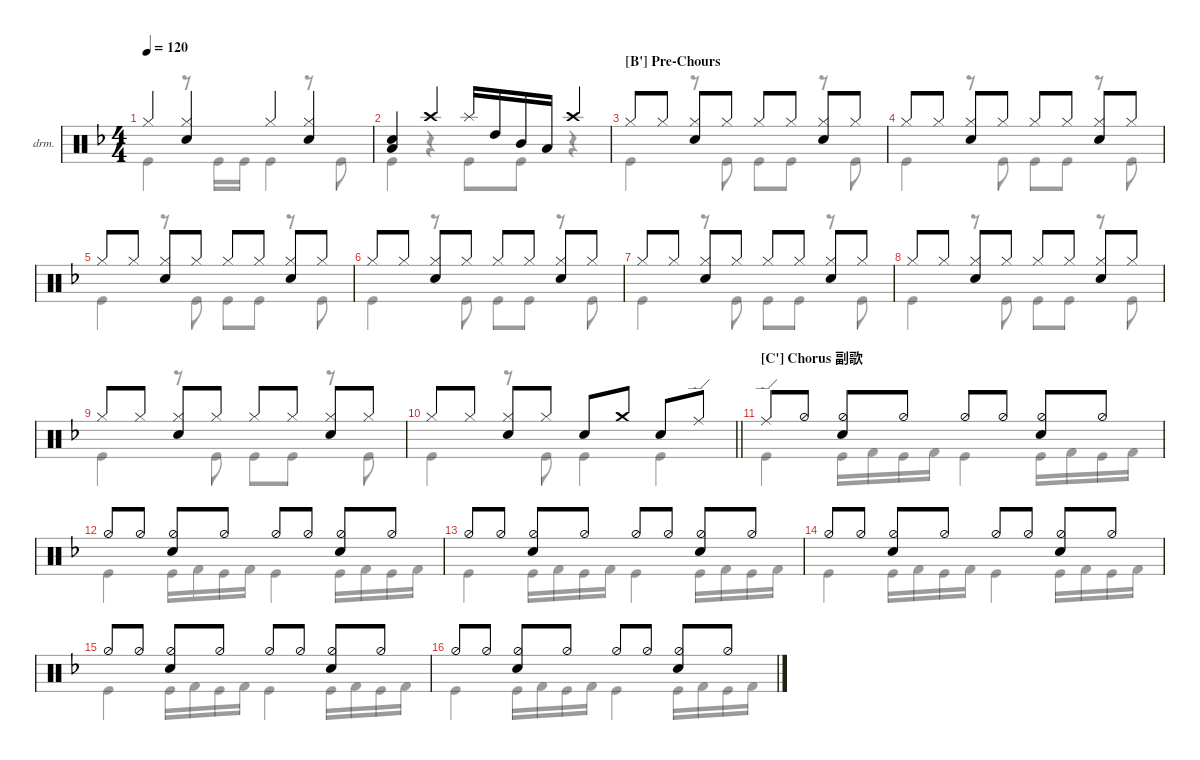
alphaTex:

\defaultSystemsLayout 4
\hideDynamics
\bracketExtendMode nobrackets
\firstSystemTrackNameOrientation horizontal
\track ("Drumkit" "drm.") {mute instrument percussion}
\staff {score}
\articulation defaults
\voice
\ts (4 4)
\tempo 120
\clef neutral
\ks dminor "Hi-Hat (closed)"{acc forcenatural}.4{dy mf}
("Snare (hit) 2"{acc forcenatural} "Hi-Hat (closed)"{acc forcenatural}).4 "Hi-Hat (closed)"{acc forcenatural}.4 ("Hi-Hat (closed)"{acc forcenatural} "Snare (hit) 2"{acc forcenatural}).4 |
("Snare (hit) 2"{acc forcenatural} "Low Floor Tom (hit)"{acc forcenatural}).4 "Crash high (hit)"{acc forcenatural}.4 "Splash (hit)"{acc forcenatural}.16 "High Tom (hit)"{acc forcenatural}.16 "Mid Tom (hit)"{acc forcenatural}.16 "Low Tom (hit)"{acc forcenatural}.16 "Crash high (hit)"{acc forcenatural}.4 |
\section ("B'" "Pre-Chours")
"Hi-Hat (closed)"{acc forcenatural}.8 "Hi-Hat (closed)"{acc forcenatural}.8 ("Hi-Hat (closed)"{acc forcenatural} "Snare (hit) 2"{acc forcenatural}).8 "Hi-Hat (closed)"{acc forcenatural}.8 "Hi-Hat (closed)"{acc forcenatural}.8 "Hi-Hat (closed)"{acc forcenatural}.8 ("Hi-Hat (closed)"{acc forcenatural} "Snare (hit) 2"{acc forcenatural}).8 "Hi-Hat (closed)"{acc forcenatural}.8 |
"Hi-Hat (closed)"{acc forcenatural}.8 "Hi-Hat (closed)"{acc forcenatural}.8 ("Hi-Hat (closed)"{acc forcenatural} "Snare (hit) 2"{acc forcenatural}).8 "Hi-Hat (closed)"{acc forcenatural}.8 "Hi-Hat (closed)"{acc forcenatural}.8 "Hi-Hat (closed)"{acc forcenatural}.8 ("Hi-Hat (closed)"{acc forcenatural} "Snare (hit) 2"{acc forcenatural}).8 "Hi-Hat (closed)"{acc forcenatural}.8 |
"Hi-Hat (closed)"{acc forcenatural}.8 "Hi-Hat (closed)"{acc forcenatural}.8 ("Hi-Hat (closed)"{acc forcenatural} "Snare (hit) 2"{acc forcenatural}).8 "Hi-Hat (closed)"{acc forcenatural}.8 "Hi-Hat (closed)"{acc forcenatural}.8 "Hi-Hat (closed)"{acc forcenatural}.8 ("Hi-Hat (closed)"{acc forcenatural} "Snare (hit) 2"{acc forcenatural}).8 "Hi-Hat (closed)"{acc forcenatural}.8 |
"Hi-Hat (closed)"{acc forcenatural}.8 "Hi-Hat (closed)"{acc forcenatural}.8 ("Hi-Hat (closed)"{acc forcenatural} "Snare (hit) 2"{acc forcenatural}).8 "Hi-Hat (closed)"{acc forcenatural}.8 "Hi-Hat (closed)"{acc forcenatural}.8 "Hi-Hat (closed)"{acc forcenatural}.8 ("Hi-Hat (closed)"{acc forcenatural} "Snare (hit) 2"{acc forcenatural}).8 "Hi-Hat (closed)"{acc forcenatural}.8 |
"Hi-Hat (closed)"{acc forcenatural}.8 "Hi-Hat (closed)"{acc forcenatural}.8 ("Hi-Hat (closed)"{acc forcenatural} "Snare (hit) 2"{acc forcenatural}).8 "Hi-Hat (closed)"{acc forcenatural}.8 "Hi-Hat (closed)"{acc forcenatural}.8 "Hi-Hat (closed)"{acc forcenatural}.8 ("Hi-Hat (closed)"{acc forcenatural} "Snare (hit) 2"{acc forcenatural}).8 "Hi-Hat (closed)"{acc forcenatural}.8 |
"Hi-Hat (closed)"{acc forcenatural}.8 "Hi-Hat (closed)"{acc forcenatural}.8 ("Hi-Hat (closed)"{acc forcenatural} "Snare (hit) 2"{acc forcenatural}).8 "Hi-Hat (closed)"{acc forcenatural}.8 "Hi-Hat (closed)"{acc forcenatural}.8 "Hi-Hat (closed)"{acc forcenatural}.8 ("Hi-Hat (closed)"{acc forcenatural} "Snare (hit) 2"{acc forcenatural}).8 "Hi-Hat (closed)"{acc forcenatural}.8 |
"Hi-Hat (closed)"{acc forcenatural}.8 "Hi-Hat (closed)"{acc forcenatural}.8 ("Hi-Hat (closed)"{acc forcenatural} "Snare (hit) 2"{acc forcenatural}).8 "Hi-Hat (closed)"{acc forcenatural}.8 "Hi-Hat (closed)"{acc forcenatural}.8 "Hi-Hat (closed)"{acc forcenatural}.8 ("Hi-Hat (closed)"{acc forcenatural} "Snare (hit) 2"{acc forcenatural}).8 "Hi-Hat (closed)"{acc forcenatural}.8 |
\barLineRight lightlight "Hi-Hat (closed)"{acc forcenatural}.8 "Hi-Hat (closed)"{acc forcenatural}.8
("Hi-Hat (closed)"{acc forcenatural} "Snare (hit) 2"{acc forcenatural}).8 "Hi-Hat (closed)"{acc forcenatural}.8 "Snare (hit) 2"{acc forcenatural}.8 "Crash medium (hit)"{acc forcenatural}.8 "Snare (hit) 2"{acc forcenatural}.8 "Ride (edge)"{acc forcenatural}.8 |
\section ("C'" "Chorus 副歌")
"Ride (edge)"{acc forcenatural}.8 "Hi-Hat (half)"{acc forcenatural}.8 ("Hi-Hat (half)"{acc forcenatural} "Snare (hit) 2"{acc forcenatural}).8 "Hi-Hat (half)"{acc forcenatural}.8 "Hi-Hat (half)"{acc forcenatural}.8 "Hi-Hat (half)"{acc forcenatural}.8 ("Hi-Hat (half)"{acc forcenatural} "Snare (hit) 2"{acc forcenatural}).8 "Hi-Hat (half)"{acc forcenatural}.8 |
"Hi-Hat (half)"{acc forcenatural}.8 "Hi-Hat (half)"{acc forcenatural}.8 ("Hi-Hat (half)"{acc forcenatural} "Snare (hit) 2"{acc forcenatural}).8 "Hi-Hat (half)"{acc forcenatural}.8 "Hi-Hat (half)"{acc forcenatural}.8 "Hi-Hat (half)"{acc forcenatural}.8 ("Hi-Hat (half)"{acc forcenatural} "Snare (hit) 2"{acc forcenatural}).8 "Hi-Hat (half)"{acc forcenatural}.8 |
"Hi-Hat (half)"{acc forcenatural}.8 "Hi-Hat (half)"{acc forcenatural}.8 ("Hi-Hat (half)"{acc forcenatural} "Snare (hit) 2"{acc forcenatural}).8 "Hi-Hat (half)"{acc forcenatural}.8 "Hi-Hat (half)"{acc forcenatural}.8 "Hi-Hat (half)"{acc forcenatural}.8 ("Hi-Hat (half)"{acc forcenatural} "Snare (hit) 2"{acc forcenatural}).8 "Hi-Hat (half)"{acc forcenatural}.8 |
"Hi-Hat (half)"{acc forcenatural}.8 "Hi-Hat (half)"{acc forcenatural}.8 ("Hi-Hat (half)"{acc forcenatural} "Snare (hit) 2"{acc forcenatural}).8 "Hi-Hat (half)"{acc forcenatural}.8 "Hi-Hat (half)"{acc forcenatural}.8 "Hi-Hat (half)"{acc forcenatural}.8 ("Hi-Hat (half)"{acc forcenatural} "Snare (hit) 2"{acc forcenatural}).8 "Hi-Hat (half)"{acc forcenatural}.8 |
"Hi-Hat (half)"{acc forcenatural}.8 "Hi-Hat (half)"{acc forcenatural}.8 ("Hi-Hat (half)"{acc forcenatural} "Snare (hit) 2"{acc forcenatural}).8 "Hi-Hat (half)"{acc forcenatural}.8 "Hi-Hat (half)"{acc forcenatural}.8 "Hi-Hat (half)"{acc forcenatural}.8 ("Hi-Hat (half)"{acc forcenatural} "Snare (hit) 2"{acc forcenatural}).8 "Hi-Hat (half)"{acc forcenatural}.8 |
"Hi-Hat (half)"{acc forcenatural}.8 "Hi-Hat (half)"{acc forcenatural}.8 ("Hi-Hat (half)"{acc forcenatural} "Snare (hit) 2"{acc forcenatural}).8 "Hi-Hat (half)"{acc forcenatural}.8 "Hi-Hat (half)"{acc forcenatural}.8 "Hi-Hat (half)"{acc forcenatural}.8 ("Hi-Hat (half)"{acc forcenatural} "Snare (hit) 2"{acc forcenatural}).8 "Hi-Hat (half)"{acc forcenatural}.8
\voice
\clef neutral
\ottava regular
\simile none
\ks dminor "Kick (hit)"{acc forcenatural}.4{dy mf}
r.8 "Kick (hit)"{acc forcenatural}.16 "Kick (hit)"{acc forcenatural}.16 "Kick (hit)"{acc forcenatural}.4 r.8 "Kick (hit)"{acc forcenatural}.8 |
"Kick (hit)"{acc forcenatural}.4 r.4 "Kick (hit)"{acc forcenatural}.8 "Kick (hit)"{acc forcenatural}.8 r.4 |
"Kick (hit)"{acc forcenatural}.4 r.8 "Kick (hit)"{acc forcenatural}.8 "Kick (hit)"{acc forcenatural}.8 "Kick (hit)"{acc forcenatural}.8 r.8 "Kick (hit)"{acc forcenatural}.8 |
"Kick (hit)"{acc forcenatural}.4 r.8 "Kick (hit)"{acc forcenatural}.8 "Kick (hit)"{acc forcenatural}.8 "Kick (hit)"{acc forcenatural}.8 r.8 "Kick (hit)"{acc forcenatural}.8 |
"Kick (hit)"{acc forcenatural}.4 r.8 "Kick (hit)"{acc forcenatural}.8 "Kick (hit)"{acc forcenatural}.8 "Kick (hit)"{acc forcenatural}.8 r.8 "Kick (hit)"{acc forcenatural}.8 |
"Kick (hit)"{acc forcenatural}.4 r.8 "Kick (hit)"{acc forcenatural}.8 "Kick (hit)"{acc forcenatural}.8 "Kick (hit)"{acc forcenatural}.8 r.8 "Kick (hit)"{acc forcenatural}.8 |
"Kick (hit)"{acc forcenatural}.4 r.8 "Kick (hit)"{acc forcenatural}.8 "Kick (hit)"{acc forcenatural}.8 "Kick (hit)"{acc forcenatural}.8 r.8 "Kick (hit)"{acc forcenatural}.8 |
"Kick (hit)"{acc forcenatural}.4 r.8 "Kick (hit)"{acc forcenatural}.8 "Kick (hit)"{acc forcenatural}.8 "Kick (hit)"{acc forcenatural}.8 r.8 "Kick (hit)"{acc forcenatural}.8 |
"Kick (hit)"{acc forcenatural}.4 r.8 "Kick (hit)"{acc forcenatural}.8 "Kick (hit)"{acc forcenatural}.8 "Kick (hit)"{acc forcenatural}.8 r.8 "Kick (hit)"{acc forcenatural}.8 |
\barLineRight lightlight "Kick (hit)"{acc forcenatural}.4
r.8 "Kick (hit)"{acc forcenatural}.8 "Kick (hit)"{acc forcenatural}.4 "Kick (hit)"{acc forcenatural}.4 |
"Kick (hit)"{acc forcenatural}.4 "Kick (hit)"{acc forcenatural}.16 "Kick (hit) 2"{acc forcenatural}.16 "Kick (hit)"{acc forcenatural}.16 "Kick (hit) 2"{acc forcenatural}.16 "Kick (hit)"{acc forcenatural}.4 "Kick (hit)"{acc forcenatural}.16 "Kick (hit) 2"{acc forcenatural}.16 "Kick (hit)"{acc forcenatural}.16 "Kick (hit) 2"{acc forcenatural}.16 |
"Kick (hit)"{acc forcenatural}.4 "Kick (hit)"{acc forcenatural}.16 "Kick (hit) 2"{acc forcenatural}.16 "Kick (hit)"{acc forcenatural}.16 "Kick (hit) 2"{acc forcenatural}.16 "Kick (hit)"{acc forcenatural}.4 "Kick (hit)"{acc forcenatural}.16 "Kick (hit) 2"{acc forcenatural}.16 "Kick (hit)"{acc forcenatural}.16 "Kick (hit) 2"{acc forcenatural}.16 |
"Kick (hit)"{acc forcenatural}.4 "Kick (hit)"{acc forcenatural}.16 "Kick (hit) 2"{acc forcenatural}.16 "Kick (hit)"{acc forcenatural}.16 "Kick (hit) 2"{acc forcenatural}.16 "Kick (hit)"{acc forcenatural}.4 "Kick (hit)"{acc forcenatural}.16 "Kick (hit) 2"{acc forcenatural}.16 "Kick (hit)"{acc forcenatural}.16 "Kick (hit) 2"{acc forcenatural}.16 |
"Kick (hit)"{acc forcenatural}.4 "Kick (hit)"{acc forcenatural}.16 "Kick (hit) 2"{acc forcenatural}.16 "Kick (hit)"{acc forcenatural}.16 "Kick (hit) 2"{acc forcenatural}.16 "Kick (hit)"{acc forcenatural}.4 "Kick (hit)"{acc forcenatural}.16 "Kick (hit) 2"{acc forcenatural}.16 "Kick (hit)"{acc forcenatural}.16 "Kick (hit) 2"{acc forcenatural}.16 |
"Kick (hit)"{acc forcenatural}.4 "Kick (hit)"{acc forcenatural}.16 "Kick (hit) 2"{acc forcenatural}.16 "Kick (hit)"{acc forcenatural}.16 "Kick (hit) 2"{acc forcenatural}.16 "Kick (hit)"{acc forcenatural}.4 "Kick (hit)"{acc forcenatural}.16 "Kick (hit) 2"{acc forcenatural}.16 "Kick (hit)"{acc forcenatural}.16 "Kick (hit) 2"{acc forcenatural}.16 |
"Kick (hit)"{acc forcenatural}.4 "Kick (hit)"{acc forcenatural}.16 "Kick (hit) 2"{acc forcenatural}.16 "Kick (hit)"{acc forcenatural}.16 "Kick (hit) 2"{acc forcenatural}.16 "Kick (hit)"{acc forcenatural}.4 "Kick (hit)"{acc forcenatural}.16 "Kick (hit) 2"{acc forcenatural}.16 "Kick (hit)"{acc forcenatural}.16 "Kick (hit) 2"{acc forcenatural}.16
